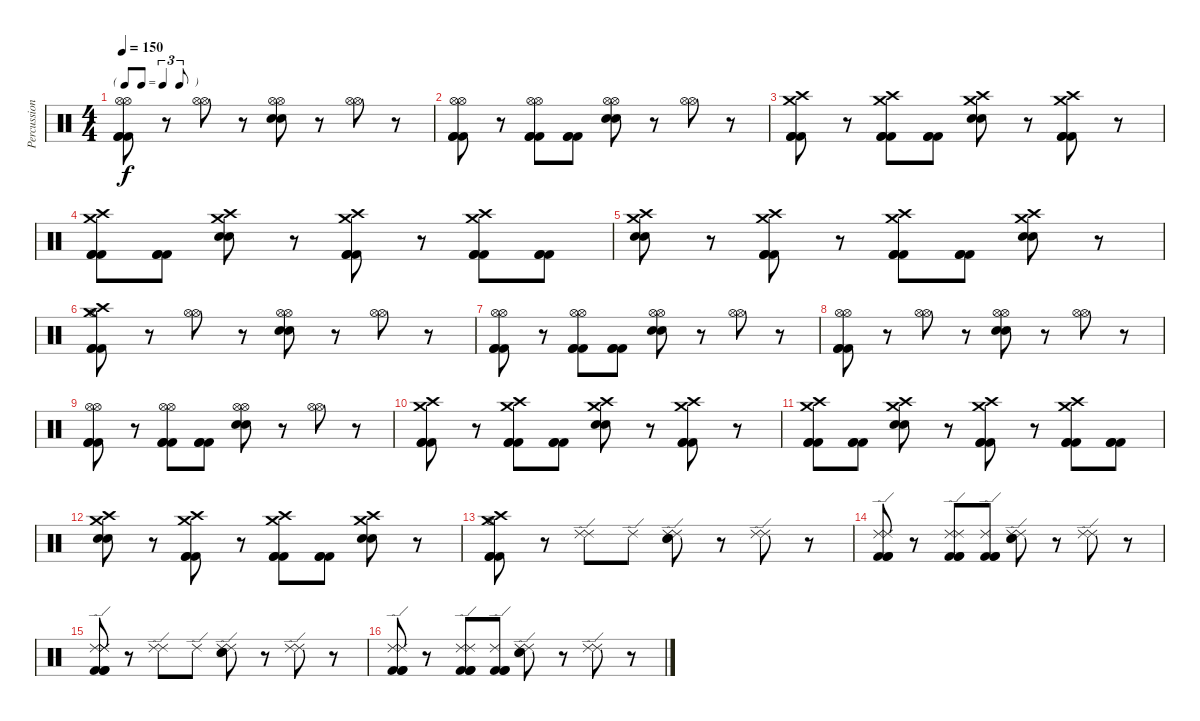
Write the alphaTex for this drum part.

\track ("Percussion" "Percussion") {instrument percussion}
\staff {score}
\articulation defaults
\ts (4 4)
\tf triplet8th
\tempo 150
\clef neutral
\ks c
("Hi-Hat (open)" "Hi-Hat (open)" "Kick (hit) 2" "Kick (hit) 2" "Kick (hit) 2").8{dy f} r.8 ("Hi-Hat (open)" "Hi-Hat (open)").8 r.8 ("Hi-Hat (open)" "Hi-Hat (open)" "Electric Snare (hit)" "Electric Snare (hit)").8 r.8 ("Hi-Hat (open)" "Hi-Hat (open)").8 r.8 |
("Hi-Hat (open)" "Hi-Hat (open)" "Kick (hit) 2" "Kick (hit) 2" "Kick (hit) 2").8 r.8 ("Hi-Hat (open)" "Hi-Hat (open)" "Kick (hit) 2" "Kick (hit) 2" "Kick (hit) 2").8 ("Kick (hit) 2" "Kick (hit) 2" "Kick (hit) 2").8 ("Hi-Hat (open)" "Hi-Hat (open)" "Electric Snare (hit)" "Electric Snare (hit)").8 r.8 ("Hi-Hat (open)" "Hi-Hat (open)").8 r.8 |
("Crash high (hit)" "Crash medium (hit)" "Kick (hit) 2" "Kick (hit) 2" "Kick (hit) 2").8 r.8 ("Crash high (hit)" "Crash medium (hit)" "Kick (hit) 2" "Kick (hit) 2" "Kick (hit) 2").8 ("Kick (hit) 2" "Kick (hit) 2" "Kick (hit) 2").8 ("Crash high (hit)" "Crash medium (hit)" "Electric Snare (hit)" "Electric Snare (hit)").8 r.8 ("Crash high (hit)" "Crash medium (hit)" "Kick (hit) 2" "Kick (hit) 2" "Kick (hit) 2").8 r.8 |
("Crash high (hit)" "Crash medium (hit)" "Kick (hit) 2" "Kick (hit) 2" "Kick (hit) 2").8 ("Kick (hit) 2" "Kick (hit) 2" "Kick (hit) 2").8 ("Crash high (hit)" "Crash medium (hit)" "Electric Snare (hit)" "Electric Snare (hit)").8 r.8 ("Crash high (hit)" "Crash medium (hit)" "Kick (hit) 2" "Kick (hit) 2" "Kick (hit) 2").8 r.8 ("Crash high (hit)" "Crash medium (hit)" "Kick (hit) 2" "Kick (hit) 2" "Kick (hit) 2").8 ("Kick (hit) 2" "Kick (hit) 2" "Kick (hit) 2").8 |
("Crash high (hit)" "Crash medium (hit)" "Electric Snare (hit)" "Electric Snare (hit)").8 r.8 ("Crash high (hit)" "Crash medium (hit)" "Kick (hit) 2" "Kick (hit) 2" "Kick (hit) 2").8 r.8 ("Crash high (hit)" "Crash medium (hit)" "Kick (hit) 2" "Kick (hit) 2" "Kick (hit) 2").8 ("Kick (hit) 2" "Kick (hit) 2" "Kick (hit) 2").8 ("Crash high (hit)" "Crash medium (hit)" "Electric Snare (hit)" "Electric Snare (hit)").8 r.8 |
("Hi-Hat (open)" "Crash high (hit)" "Crash medium (hit)" "Kick (hit) 2" "Kick (hit) 2" "Kick (hit) 2").8 r.8 ("Hi-Hat (open)" "Hi-Hat (open)").8 r.8 ("Hi-Hat (open)" "Hi-Hat (open)" "Electric Snare (hit)" "Electric Snare (hit)").8 r.8 ("Hi-Hat (open)" "Hi-Hat (open)").8 r.8 |
("Hi-Hat (open)" "Hi-Hat (open)" "Kick (hit) 2" "Kick (hit) 2" "Kick (hit) 2").8 r.8 ("Hi-Hat (open)" "Hi-Hat (open)" "Kick (hit) 2" "Kick (hit) 2" "Kick (hit) 2").8 ("Kick (hit) 2" "Kick (hit) 2" "Kick (hit) 2").8 ("Hi-Hat (open)" "Hi-Hat (open)" "Electric Snare (hit)" "Electric Snare (hit)").8 r.8 ("Hi-Hat (open)" "Hi-Hat (open)").8 r.8 |
("Hi-Hat (open)" "Hi-Hat (open)" "Kick (hit) 2" "Kick (hit) 2" "Kick (hit) 2").8 r.8 ("Hi-Hat (open)" "Hi-Hat (open)").8 r.8 ("Hi-Hat (open)" "Hi-Hat (open)" "Electric Snare (hit)" "Electric Snare (hit)").8 r.8 ("Hi-Hat (open)" "Hi-Hat (open)").8 r.8 |
("Hi-Hat (open)" "Hi-Hat (open)" "Kick (hit) 2" "Kick (hit) 2" "Kick (hit) 2").8 r.8 ("Hi-Hat (open)" "Hi-Hat (open)" "Kick (hit) 2" "Kick (hit) 2" "Kick (hit) 2").8 ("Kick (hit) 2" "Kick (hit) 2" "Kick (hit) 2").8 ("Hi-Hat (open)" "Hi-Hat (open)" "Electric Snare (hit)" "Electric Snare (hit)").8 r.8 ("Hi-Hat (open)" "Hi-Hat (open)").8 r.8 |
("Crash high (hit)" "Crash medium (hit)" "Kick (hit) 2" "Kick (hit) 2" "Kick (hit) 2").8 r.8 ("Crash high (hit)" "Crash medium (hit)" "Kick (hit) 2" "Kick (hit) 2" "Kick (hit) 2").8 ("Kick (hit) 2" "Kick (hit) 2" "Kick (hit) 2").8 ("Crash high (hit)" "Crash medium (hit)" "Electric Snare (hit)" "Electric Snare (hit)").8 r.8 ("Crash high (hit)" "Crash medium (hit)" "Kick (hit) 2" "Kick (hit) 2" "Kick (hit) 2").8 r.8 |
("Crash high (hit)" "Crash medium (hit)" "Kick (hit) 2" "Kick (hit) 2" "Kick (hit) 2").8 ("Kick (hit) 2" "Kick (hit) 2" "Kick (hit) 2").8 ("Crash high (hit)" "Crash medium (hit)" "Electric Snare (hit)" "Electric Snare (hit)").8 r.8 ("Crash high (hit)" "Crash medium (hit)" "Kick (hit) 2" "Kick (hit) 2" "Kick (hit) 2").8 r.8 ("Crash high (hit)" "Crash medium (hit)" "Kick (hit) 2" "Kick (hit) 2" "Kick (hit) 2").8 ("Kick (hit) 2" "Kick (hit) 2" "Kick (hit) 2").8 |
("Crash high (hit)" "Crash medium (hit)" "Electric Snare (hit)" "Electric Snare (hit)").8 r.8 ("Crash high (hit)" "Crash medium (hit)" "Kick (hit) 2" "Kick (hit) 2" "Kick (hit) 2").8 r.8 ("Crash high (hit)" "Crash medium (hit)" "Kick (hit) 2" "Kick (hit) 2" "Kick (hit) 2").8 ("Kick (hit) 2" "Kick (hit) 2" "Kick (hit) 2").8 ("Crash high (hit)" "Crash medium (hit)" "Electric Snare (hit)" "Electric Snare (hit)").8 r.8 |
("Hi-Hat (open)" "Crash high (hit)" "Crash medium (hit)" "Kick (hit) 2" "Kick (hit) 2" "Kick (hit) 2").8 r.8 ("Ride (edge) 2" "Ride (edge) 2").8 "Ride (edge) 2".8 ("Ride (edge) 2" "Ride (edge) 2" "Electric Snare (hit)" "Electric Snare (hit)").8 r.8 ("Ride (edge) 2" "Ride (edge) 2").8 r.8 |
("Ride (edge) 2" "Ride (edge) 2" "Kick (hit) 2" "Kick (hit) 2" "Kick (hit) 2").8 r.8 ("Ride (edge) 2" "Ride (edge) 2" "Kick (hit) 2" "Kick (hit) 2" "Kick (hit) 2").8 ("Ride (edge) 2" "Kick (hit) 2" "Kick (hit) 2" "Kick (hit) 2").8 ("Ride (edge) 2" "Ride (edge) 2" "Electric Snare (hit)" "Electric Snare (hit)").8 r.8 ("Ride (edge) 2" "Ride (edge) 2").8 r.8 |
("Ride (edge) 2" "Ride (edge) 2" "Ride (edge) 2" "Kick (hit) 2" "Kick (hit) 2" "Kick (hit) 2").8 r.8 ("Ride (edge) 2" "Ride (edge) 2").8 "Ride (edge) 2".8 ("Ride (edge) 2" "Ride (edge) 2" "Electric Snare (hit)" "Electric Snare (hit)").8 r.8 ("Ride (edge) 2" "Ride (edge) 2").8 r.8 |
("Ride (edge) 2" "Ride (edge) 2" "Kick (hit) 2" "Kick (hit) 2" "Kick (hit) 2").8 r.8 ("Ride (edge) 2" "Ride (edge) 2" "Kick (hit) 2" "Kick (hit) 2" "Kick (hit) 2").8 ("Ride (edge) 2" "Kick (hit) 2" "Kick (hit) 2" "Kick (hit) 2").8 ("Ride (edge) 2" "Ride (edge) 2" "Electric Snare (hit)" "Electric Snare (hit)").8 r.8 ("Ride (edge) 2" "Ride (edge) 2").8 r.8
